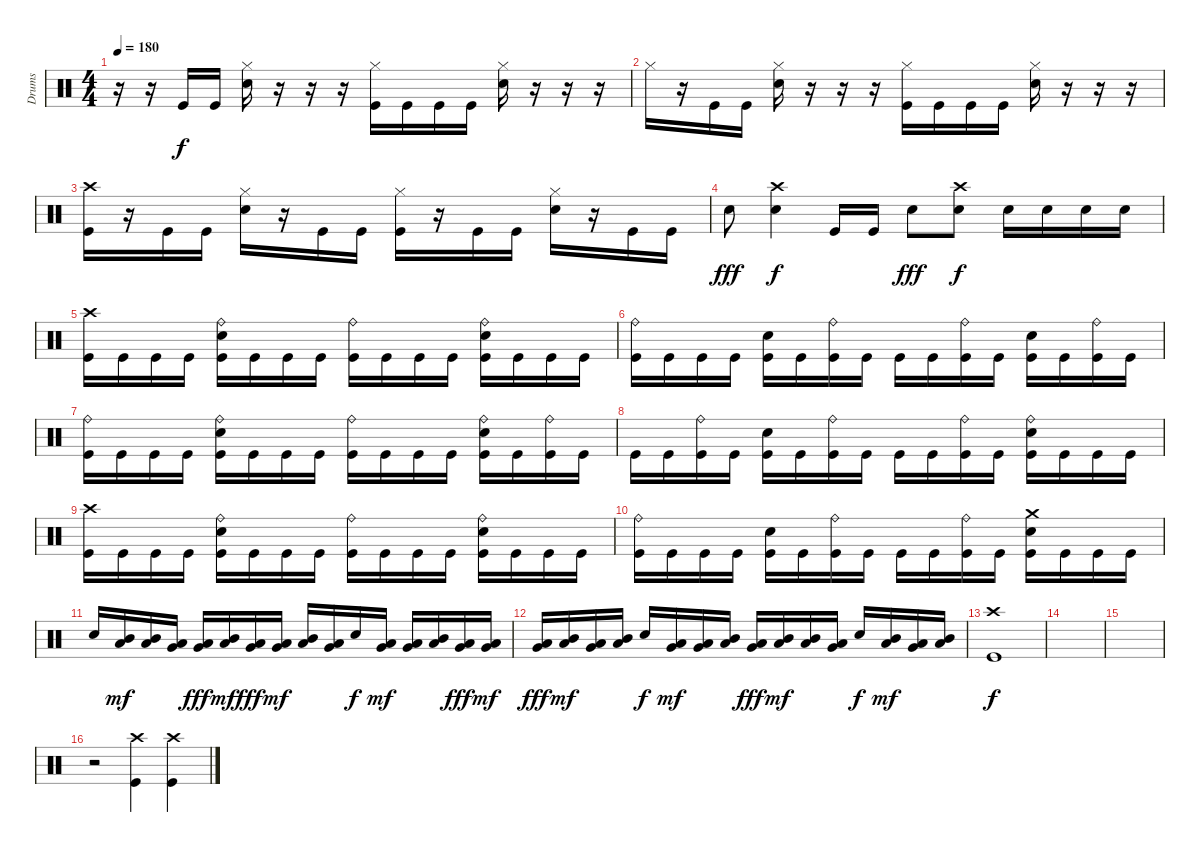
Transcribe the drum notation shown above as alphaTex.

\track ("Drums" "Drums") {instrument percussion}
\staff {score}
\articulation defaults
\ts (4 4)
\tempo 180
\clef neutral
\ks c
r.16{dy f} r.16 "Kick (hit)".16 "Kick (hit)".16 ("Hi-Hat (closed)" "Snare (hit) 2").16 r.16 r.16 r.16 ("Hi-Hat (closed)" "Kick (hit)").16 "Kick (hit)".16 "Kick (hit)".16 "Kick (hit)".16 ("Hi-Hat (closed)" "Snare (hit) 2").16 r.16 r.16 r.16 |
"Hi-Hat (closed)".16 r.16 "Kick (hit)".16 "Kick (hit)".16 ("Hi-Hat (closed)" "Snare (hit) 2").16 r.16 r.16 r.16 ("Hi-Hat (closed)" "Kick (hit)").16 "Kick (hit)".16 "Kick (hit)".16 "Kick (hit)".16 ("Hi-Hat (closed)" "Snare (hit) 2").16 r.16 r.16 r.16 |
("Crash high (hit)" "Kick (hit)").16 r.16 "Kick (hit)".16 "Kick (hit)".16 ("Hi-Hat (closed)" "Snare (hit) 2").16 r.16 "Kick (hit)".16 "Kick (hit)".16 ("Hi-Hat (closed)" "Kick (hit)").16 r.16 "Kick (hit)".16 "Kick (hit)".16 ("Hi-Hat (closed)" "Snare (hit) 2").16 r.16 "Kick (hit)".16 "Kick (hit)".16 |
"Snare (hit) 2".8{dy fff} ("Crash high (hit)" "Snare (hit) 2").4{dy f} "Kick (hit)".16 "Kick (hit)".16 "Snare (hit) 2".8{dy fff} ("Crash high (hit)" "Snare (hit) 2").8{dy f} "Snare (hit) 2".16 "Snare (hit) 2".16 "Snare (hit) 2".16 "Snare (hit) 2".16 |
("Crash high (hit)" "Kick (hit)").16 "Kick (hit)".16 "Kick (hit)".16 "Kick (hit)".16 ("Ride (bell)" "Snare (hit) 2" "Kick (hit)").16 "Kick (hit)".16 "Kick (hit)".16 "Kick (hit)".16 ("Ride (bell)" "Kick (hit)").16 "Kick (hit)".16 "Kick (hit)".16 "Kick (hit)".16 ("Ride (bell)" "Snare (hit) 2" "Kick (hit)").16 "Kick (hit)".16 "Kick (hit)".16 "Kick (hit)".16 |
("Ride (bell)" "Kick (hit)").16 "Kick (hit)".16 "Kick (hit)".16 "Kick (hit)".16 ("Snare (hit) 2" "Kick (hit)").16 "Kick (hit)".16 ("Ride (bell)" "Kick (hit)").16 "Kick (hit)".16 "Kick (hit)".16 "Kick (hit)".16 ("Ride (bell)" "Kick (hit)").16 "Kick (hit)".16 ("Snare (hit) 2" "Kick (hit)").16 "Kick (hit)".16 ("Ride (bell)" "Kick (hit)").16 "Kick (hit)".16 |
("Ride (bell)" "Kick (hit)").16 "Kick (hit)".16 "Kick (hit)".16 "Kick (hit)".16 ("Ride (bell)" "Snare (hit) 2" "Kick (hit)").16 "Kick (hit)".16 "Kick (hit)".16 "Kick (hit)".16 ("Ride (bell)" "Kick (hit)").16 "Kick (hit)".16 "Kick (hit)".16 "Kick (hit)".16 ("Ride (bell)" "Snare (hit) 2" "Kick (hit)").16 "Kick (hit)".16 ("Ride (bell)" "Kick (hit)").16 "Kick (hit)".16 |
"Kick (hit)".16 "Kick (hit)".16 ("Ride (bell)" "Kick (hit)").16 "Kick (hit)".16 ("Snare (hit) 2" "Kick (hit)").16 "Kick (hit)".16 ("Ride (bell)" "Kick (hit)").16 "Kick (hit)".16 "Kick (hit)".16 "Kick (hit)".16 ("Ride (bell)" "Kick (hit)").16 "Kick (hit)".16 ("Ride (bell)" "Snare (hit) 2" "Kick (hit)").16 "Kick (hit)".16 "Kick (hit)".16 "Kick (hit)".16 |
("Crash high (hit)" "Kick (hit)").16 "Kick (hit)".16 "Kick (hit)".16 "Kick (hit)".16 ("Ride (bell)" "Snare (hit) 2" "Kick (hit)").16 "Kick (hit)".16 "Kick (hit)".16 "Kick (hit)".16 ("Ride (bell)" "Kick (hit)").16 "Kick (hit)".16 "Kick (hit)".16 "Kick (hit)".16 ("Ride (bell)" "Snare (hit) 2" "Kick (hit)").16 "Kick (hit)".16 "Kick (hit)".16 "Kick (hit)".16 |
("Ride (bell)" "Kick (hit)").16 "Kick (hit)".16 "Kick (hit)".16 "Kick (hit)".16 ("Snare (hit) 2" "Kick (hit)").16 "Kick (hit)".16 ("Ride (bell)" "Kick (hit)").16 "Kick (hit)".16 "Kick (hit)".16 "Kick (hit)".16 ("Ride (bell)" "Kick (hit)").16 "Kick (hit)".16 ("Crash medium (hit)" "Snare (hit) 2" "Kick (hit)").16 "Kick (hit)".16 "Kick (hit)".16 "Kick (hit)".16 |
"Snare (hit) 2".16 ("Mid Tom (hit)" "Low Tom (hit)").16{dy mf} ("Mid Tom (hit)" "Low Tom (hit)").16 ("Low Tom (hit)" "Very Low Tom (hit)").16 ("Very Low Tom (hit)" "Low Floor Tom (hit)").16{dy fff} ("Mid Tom (hit)" "Low Tom (hit)").16{dy mf} ("Very Low Tom (hit)" "Low Floor Tom (hit)").16{dy fff} ("Low Tom (hit)" "Very Low Tom (hit)").16{dy mf} ("Mid Tom (hit)" "Low Tom (hit)").16 ("Low Tom (hit)" "Very Low Tom (hit)").16 "Snare (hit) 2".16{dy f} ("Low Tom (hit)" "Very Low Tom (hit)").16{dy mf} ("Low Tom (hit)" "Very Low Tom (hit)").16 ("Mid Tom (hit)" "Low Tom (hit)").16 ("Very Low Tom (hit)" "Low Floor Tom (hit)").16{dy fff} ("Low Tom (hit)" "Very Low Tom (hit)").16{dy mf} |
("Very Low Tom (hit)" "Low Floor Tom (hit)").16{dy fff} ("Mid Tom (hit)" "Low Tom (hit)").16{dy mf} ("Low Tom (hit)" "Very Low Tom (hit)").16 ("Mid Tom (hit)" "Low Tom (hit)").16 "Snare (hit) 2".16{dy f} ("Low Tom (hit)" "Very Low Tom (hit)").16{dy mf} ("Low Tom (hit)" "Very Low Tom (hit)").16 ("Mid Tom (hit)" "Low Tom (hit)").16 ("Very Low Tom (hit)" "Low Floor Tom (hit)").16{dy fff} ("Mid Tom (hit)" "Low Tom (hit)").16{dy mf} ("Mid Tom (hit)" "Low Tom (hit)").16 ("Low Tom (hit)" "Very Low Tom (hit)").16 "Snare (hit) 2".16{dy f} ("Mid Tom (hit)" "Low Tom (hit)").16{dy mf} ("Low Tom (hit)" "Very Low Tom (hit)").16 ("Mid Tom (hit)" "Low Tom (hit)").16 |
("Crash high (hit)" "Kick (hit)").1{dy f} |
|
|
r.2 ("Crash high (hit)" "Kick (hit)").4 ("Crash high (hit)" "Kick (hit)").4
